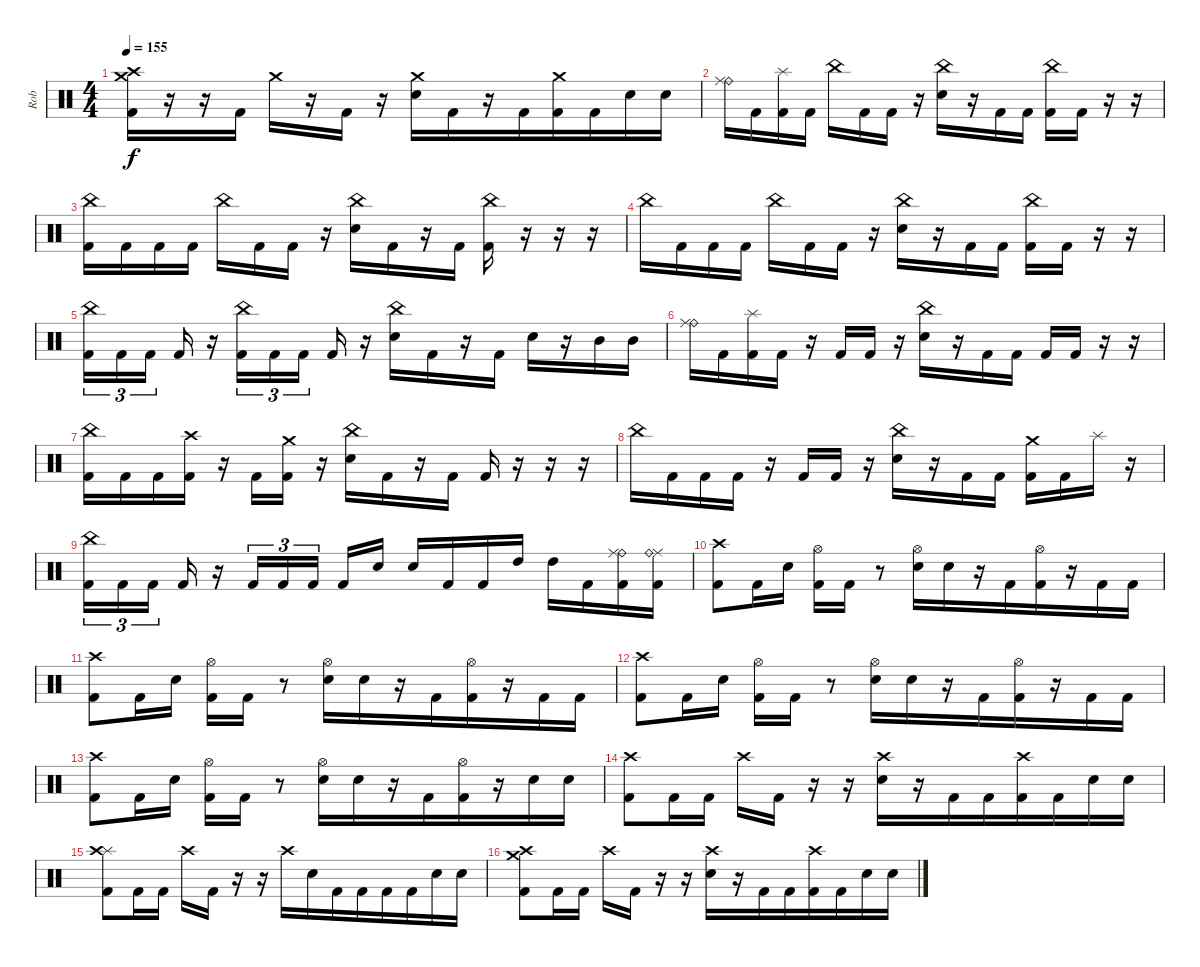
\track ("Rob" "Rob") {instrument percussion}
\staff {score}
\articulation defaults
\ts (4 4)
\tempo 155
\clef neutral
\ks c
("Crash high (hit)" "Crash medium (hit)" "Kick (hit) 2").16{dy f} r.16 r.16{beam merge} "Kick (hit) 2".16 "Crash medium (hit)".16 r.16 "Kick (hit) 2".16 r.16 ("Crash medium (hit)" "Electric Snare (hit)").16 "Kick (hit) 2".16 r.16 "Kick (hit) 2".16{beam merge} ("Crash medium (hit)" "Kick (hit) 2").16 "Kick (hit) 2".16 "Electric Snare (hit)".16 "Electric Snare (hit)".16 |
("Ride (bell)" "Ride (middle)").16 "Kick (hit) 2".16 ("Splash (hit)" "Kick (hit) 2").16 "Kick (hit) 2".16 "China (hit)".16 "Kick (hit) 2".16 "Kick (hit) 2".16 r.16 ("China (hit)" "Electric Snare (hit)").16 r.16 "Kick (hit) 2".16 "Kick (hit) 2".16 ("China (hit)" "Kick (hit) 2").16 "Kick (hit) 2".16 r.16 r.16 |
("China (hit)" "Kick (hit) 2").16 "Kick (hit) 2".16 "Kick (hit) 2".16 "Kick (hit) 2".16 "China (hit)".16 "Kick (hit) 2".16 "Kick (hit) 2".16 r.16 ("China (hit)" "Electric Snare (hit)").16 "Kick (hit) 2".16 r.16 "Kick (hit) 2".16 ("China (hit)" "Kick (hit) 2").16 r.16 r.16 r.16 |
"China (hit)".16 "Kick (hit) 2".16 "Kick (hit) 2".16 "Kick (hit) 2".16 "China (hit)".16 "Kick (hit) 2".16 "Kick (hit) 2".16 r.16 ("China (hit)" "Electric Snare (hit)").16 r.16 "Kick (hit) 2".16 "Kick (hit) 2".16 ("China (hit)" "Kick (hit) 2").16 "Kick (hit) 2".16 r.16 r.16 |
("China (hit)" "Kick (hit) 2").16{tu (3 2)} "Kick (hit) 2".16{tu (3 2)} "Kick (hit) 2".16{tu (3 2) beam splitsecondary} "Kick (hit) 2".16 r.16 ("China (hit)" "Kick (hit) 2").16{tu (3 2)} "Kick (hit) 2".16{tu (3 2)} "Kick (hit) 2".16{tu (3 2) beam splitsecondary} "Kick (hit) 2".16 r.16 ("China (hit)" "Electric Snare (hit)").16 "Kick (hit) 2".16 r.16 "Kick (hit) 2".16 "Electric Snare (hit)".16 r.16 "Mid Tom (hit)".16 "Mid Tom (hit)".16 |
("Ride (bell)" "Ride (middle)").16 "Kick (hit) 2".16 ("Splash (hit)" "Kick (hit) 2").16 "Kick (hit) 2".16 r.16 "Kick (hit) 2".16 "Kick (hit) 2".16 r.16 ("China (hit)" "Electric Snare (hit)").16 r.16 "Kick (hit) 2".16 "Kick (hit) 2".16 "Kick (hit) 2".16 "Kick (hit) 2".16 r.16 r.16 |
("China (hit)" "Kick (hit) 2").16 "Kick (hit) 2".16 "Kick (hit) 2".16 ("Crash high (hit)" "Kick (hit) 2").16 r.16 "Kick (hit) 2".16 ("Crash medium (hit)" "Kick (hit) 2").16 r.16 ("China (hit)" "Electric Snare (hit)").16 "Kick (hit) 2".16 r.16 "Kick (hit) 2".16 "Kick (hit) 2".16 r.16 r.16 r.16 |
"China (hit)".16 "Kick (hit) 2".16 "Kick (hit) 2".16 "Kick (hit) 2".16 r.16 "Kick (hit) 2".16 "Kick (hit) 2".16 r.16 ("China (hit)" "Electric Snare (hit)").16 r.16 "Kick (hit) 2".16 "Kick (hit) 2".16 ("Crash medium (hit)" "Kick (hit) 2").16 "Kick (hit) 2".16 "Splash (hit)".16 r.16 |
("China (hit)" "Kick (hit) 2").16{tu (3 2)} "Kick (hit) 2".16{tu (3 2)} "Kick (hit) 2".16{tu (3 2) beam splitsecondary} "Kick (hit) 2".16 r.16 "Kick (hit) 2".16{tu (3 2)} "Kick (hit) 2".16{tu (3 2)} "Kick (hit) 2".16{tu (3 2) beam splitsecondary} "Kick (hit) 2".16 "Electric Snare (hit)".16 "Electric Snare (hit)".16 "Kick (hit) 2".16 "Kick (hit) 2".16 "High Tom (hit)".16 "High Tom (hit)".16 "Kick (hit) 2".16{beam merge} ("Kick (hit) 2" "Ride (bell)" "Ride (middle)").16 ("Kick (hit) 2" "Ride (middle)" "Ride (bell)").16 |
("Kick (hit) 2" "Crash high (hit)").8 "Kick (hit) 2".16 "Electric Snare (hit)".16 ("Kick (hit) 2" "Hi-Hat (open)").16{beam merge} "Kick (hit) 2".16 r.8{beam merge} ("Electric Snare (hit)" "Hi-Hat (open)").16 "Electric Snare (hit)".16{beam merge} r.16 "Kick (hit) 2".16{beam merge} ("Kick (hit) 2" "Hi-Hat (open)").16{beam merge} r.16{beam merge} "Kick (hit) 2".16 "Kick (hit) 2".16 |
("Kick (hit) 2" "Crash high (hit)").8 "Kick (hit) 2".16 "Electric Snare (hit)".16 ("Kick (hit) 2" "Hi-Hat (open)").16{beam merge} "Kick (hit) 2".16 r.8{beam merge} ("Electric Snare (hit)" "Hi-Hat (open)").16 "Electric Snare (hit)".16{beam merge} r.16 "Kick (hit) 2".16{beam merge} ("Kick (hit) 2" "Hi-Hat (open)").16{beam merge} r.16{beam merge} "Kick (hit) 2".16 "Kick (hit) 2".16 |
("Kick (hit) 2" "Crash high (hit)").8 "Kick (hit) 2".16 "Electric Snare (hit)".16 ("Kick (hit) 2" "Hi-Hat (open)").16{beam merge} "Kick (hit) 2".16 r.8{beam merge} ("Electric Snare (hit)" "Hi-Hat (open)").16 "Electric Snare (hit)".16{beam merge} r.16 "Kick (hit) 2".16{beam merge} ("Kick (hit) 2" "Hi-Hat (open)").16{beam merge} r.16{beam merge} "Kick (hit) 2".16 "Kick (hit) 2".16 |
("Kick (hit) 2" "Crash high (hit)").8 "Kick (hit) 2".16 "Electric Snare (hit)".16 ("Kick (hit) 2" "Hi-Hat (open)").16{beam merge} "Kick (hit) 2".16 r.8{beam merge} ("Electric Snare (hit)" "Hi-Hat (open)").16 "Electric Snare (hit)".16{beam merge} r.16 "Kick (hit) 2".16{beam merge} ("Kick (hit) 2" "Hi-Hat (open)").16{beam merge} r.16{beam merge} "Electric Snare (hit)".16 "Electric Snare (hit)".16 |
("Kick (hit) 2" "Crash high (hit)").8 "Kick (hit) 2".16 "Kick (hit) 2".16 "Crash high (hit)".16 "Kick (hit) 2".16 r.16 r.16 ("Electric Snare (hit)" "Crash high (hit)").16 r.16 "Kick (hit) 2".16{beam merge} "Kick (hit) 2".16{beam merge} ("Kick (hit) 2" "Crash high (hit)").16{beam merge} "Kick (hit) 2".16 "Electric Snare (hit)".16 "Electric Snare (hit)".16 |
("Kick (hit) 2" "Splash (hit)" "Crash high (hit)").8 "Kick (hit) 2".16 "Kick (hit) 2".16 "Crash high (hit)".16 "Kick (hit) 2".16 r.16 r.16 "Crash high (hit)".16 "Electric Snare (hit)".16 "Kick (hit) 2".16{beam merge} "Kick (hit) 2".16{beam merge} "Kick (hit) 2".16{beam merge} "Kick (hit) 2".16 "Electric Snare (hit)".16 "Electric Snare (hit)".16 |
("Kick (hit) 2" "Crash medium (hit)" "Crash high (hit)").8 "Kick (hit) 2".16 "Kick (hit) 2".16 "Crash high (hit)".16 "Kick (hit) 2".16 r.16 r.16 ("Electric Snare (hit)" "Crash high (hit)").16 r.16 "Kick (hit) 2".16{beam merge} "Kick (hit) 2".16{beam merge} ("Kick (hit) 2" "Crash high (hit)").16{beam merge} "Kick (hit) 2".16 "Electric Snare (hit)".16 "Electric Snare (hit)".16
